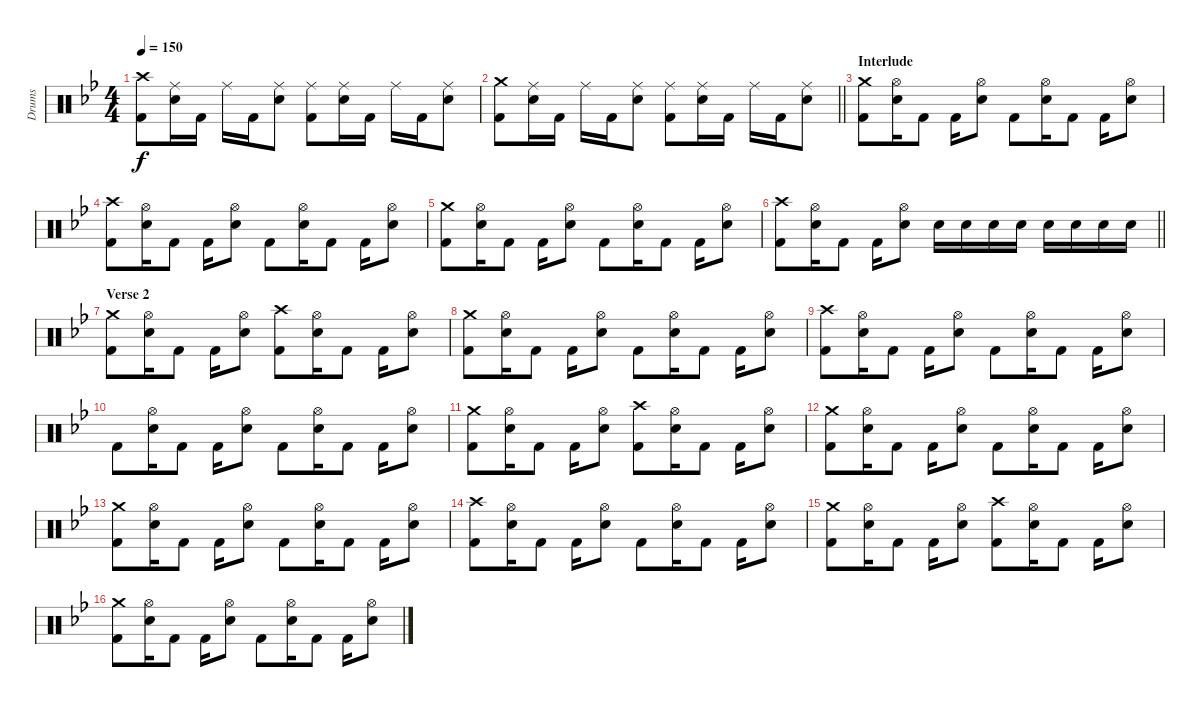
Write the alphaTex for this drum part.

\track ("Drums" "Drums") {instrument percussion}
\staff {score}
\articulation defaults
\ts (4 4)
\tempo 150
\clef neutral
\ks bb
("Crash high (hit)" "Kick (hit) 2").8{dy f} ("Ride (middle)" "Snare (hit) 2").16 "Kick (hit) 2".16 "Ride (middle)".16 "Kick (hit) 2".16 ("Ride (middle)" "Snare (hit) 2").8 ("Ride (middle)" "Kick (hit) 2").8 ("Ride (middle)" "Snare (hit) 2").16 "Kick (hit) 2".16 "Ride (middle)".16 "Kick (hit) 2".16 ("Ride (middle)" "Snare (hit) 2").8 |
\barLineRight lightlight
("Crash medium (hit)" "Kick (hit) 2").8 ("Ride (middle)" "Snare (hit) 2").16 "Kick (hit) 2".16 "Ride (middle)".16 "Kick (hit) 2".16 ("Ride (middle)" "Snare (hit) 2").8 ("Ride (middle)" "Kick (hit) 2").8 ("Ride (middle)" "Snare (hit) 2").16 "Kick (hit) 2".16 "Ride (middle)".16 "Kick (hit) 2".16 ("Ride (middle)" "Snare (hit) 2").8 |
\section ("" "Interlude")
("Crash medium (hit)" "Kick (hit) 2").8 ("Hi-Hat (open)" "Snare (hit) 2").16 "Kick (hit) 2".8 "Kick (hit) 2".16 ("Hi-Hat (open)" "Snare (hit) 2").8 "Kick (hit) 2".8 ("Hi-Hat (open)" "Snare (hit) 2").16 "Kick (hit) 2".8 "Kick (hit) 2".16 ("Hi-Hat (open)" "Snare (hit) 2").8 |
("Crash high (hit)" "Kick (hit) 2").8 ("Hi-Hat (open)" "Snare (hit) 2").16 "Kick (hit) 2".8 "Kick (hit) 2".16 ("Hi-Hat (open)" "Snare (hit) 2").8 "Kick (hit) 2".8 ("Hi-Hat (open)" "Snare (hit) 2").16 "Kick (hit) 2".8 "Kick (hit) 2".16 ("Hi-Hat (open)" "Snare (hit) 2").8 |
("Crash medium (hit)" "Kick (hit) 2").8 ("Hi-Hat (open)" "Snare (hit) 2").16 "Kick (hit) 2".8 "Kick (hit) 2".16 ("Hi-Hat (open)" "Snare (hit) 2").8 "Kick (hit) 2".8 ("Hi-Hat (open)" "Snare (hit) 2").16 "Kick (hit) 2".8 "Kick (hit) 2".16 ("Hi-Hat (open)" "Snare (hit) 2").8 |
\barLineRight lightlight
("Crash high (hit)" "Kick (hit) 2").8 ("Hi-Hat (open)" "Snare (hit) 2").16 "Kick (hit) 2".8 "Kick (hit) 2".16 ("Hi-Hat (open)" "Snare (hit) 2").8 "Snare (hit) 2".16 "Snare (hit) 2".16 "Snare (hit) 2".16 "Snare (hit) 2".16 "Snare (hit) 2".16 "Snare (hit) 2".16 "Snare (hit) 2".16 "Snare (hit) 2".16 |
\section ("" "Verse 2")
("Crash medium (hit)" "Kick (hit) 2").8 ("Hi-Hat (open)" "Snare (hit) 2").16 "Kick (hit) 2".8 "Kick (hit) 2".16 ("Hi-Hat (open)" "Snare (hit) 2").8 ("Crash high (hit)" "Kick (hit) 2").8 ("Hi-Hat (open)" "Snare (hit) 2").16 "Kick (hit) 2".8 "Kick (hit) 2".16 ("Hi-Hat (open)" "Snare (hit) 2").8 |
("Crash medium (hit)" "Kick (hit) 2").8 ("Hi-Hat (open)" "Snare (hit) 2").16 "Kick (hit) 2".8 "Kick (hit) 2".16 ("Hi-Hat (open)" "Snare (hit) 2").8 "Kick (hit) 2".8 ("Hi-Hat (open)" "Snare (hit) 2").16 "Kick (hit) 2".8 "Kick (hit) 2".16 ("Hi-Hat (open)" "Snare (hit) 2").8 |
("Crash high (hit)" "Kick (hit) 2").8 ("Hi-Hat (open)" "Snare (hit) 2").16 "Kick (hit) 2".8 "Kick (hit) 2".16 ("Hi-Hat (open)" "Snare (hit) 2").8 "Kick (hit) 2".8 ("Hi-Hat (open)" "Snare (hit) 2").16 "Kick (hit) 2".8 "Kick (hit) 2".16 ("Hi-Hat (open)" "Snare (hit) 2").8 |
"Kick (hit) 2".8 ("Hi-Hat (open)" "Snare (hit) 2").16 "Kick (hit) 2".8 "Kick (hit) 2".16 ("Hi-Hat (open)" "Snare (hit) 2").8 "Kick (hit) 2".8 ("Hi-Hat (open)" "Snare (hit) 2").16 "Kick (hit) 2".8 "Kick (hit) 2".16 ("Hi-Hat (open)" "Snare (hit) 2").8 |
("Crash medium (hit)" "Kick (hit) 2").8 ("Hi-Hat (open)" "Snare (hit) 2").16 "Kick (hit) 2".8 "Kick (hit) 2".16 ("Hi-Hat (open)" "Snare (hit) 2").8 ("Crash high (hit)" "Kick (hit) 2").8 ("Hi-Hat (open)" "Snare (hit) 2").16 "Kick (hit) 2".8 "Kick (hit) 2".16 ("Hi-Hat (open)" "Snare (hit) 2").8 |
("Crash medium (hit)" "Kick (hit) 2").8 ("Hi-Hat (open)" "Snare (hit) 2").16 "Kick (hit) 2".8 "Kick (hit) 2".16 ("Hi-Hat (open)" "Snare (hit) 2").8 "Kick (hit) 2".8 ("Hi-Hat (open)" "Snare (hit) 2").16 "Kick (hit) 2".8 "Kick (hit) 2".16 ("Hi-Hat (open)" "Snare (hit) 2").8 |
("Crash medium (hit)" "Kick (hit) 2").8 ("Hi-Hat (open)" "Snare (hit) 2").16 "Kick (hit) 2".8 "Kick (hit) 2".16 ("Hi-Hat (open)" "Snare (hit) 2").8 "Kick (hit) 2".8 ("Hi-Hat (open)" "Snare (hit) 2").16 "Kick (hit) 2".8 "Kick (hit) 2".16 ("Hi-Hat (open)" "Snare (hit) 2").8 |
("Crash high (hit)" "Kick (hit) 2").8 ("Hi-Hat (open)" "Snare (hit) 2").16 "Kick (hit) 2".8 "Kick (hit) 2".16 ("Hi-Hat (open)" "Snare (hit) 2").8 "Kick (hit) 2".8 ("Hi-Hat (open)" "Snare (hit) 2").16 "Kick (hit) 2".8 "Kick (hit) 2".16 ("Hi-Hat (open)" "Snare (hit) 2").8 |
("Crash medium (hit)" "Kick (hit) 2").8 ("Hi-Hat (open)" "Snare (hit) 2").16 "Kick (hit) 2".8 "Kick (hit) 2".16 ("Hi-Hat (open)" "Snare (hit) 2").8 ("Crash high (hit)" "Kick (hit) 2").8 ("Hi-Hat (open)" "Snare (hit) 2").16 "Kick (hit) 2".8 "Kick (hit) 2".16 ("Hi-Hat (open)" "Snare (hit) 2").8 |
("Crash medium (hit)" "Kick (hit) 2").8 ("Hi-Hat (open)" "Snare (hit) 2").16 "Kick (hit) 2".8 "Kick (hit) 2".16 ("Hi-Hat (open)" "Snare (hit) 2").8 "Kick (hit) 2".8 ("Hi-Hat (open)" "Snare (hit) 2").16 "Kick (hit) 2".8 "Kick (hit) 2".16 ("Hi-Hat (open)" "Snare (hit) 2").8
